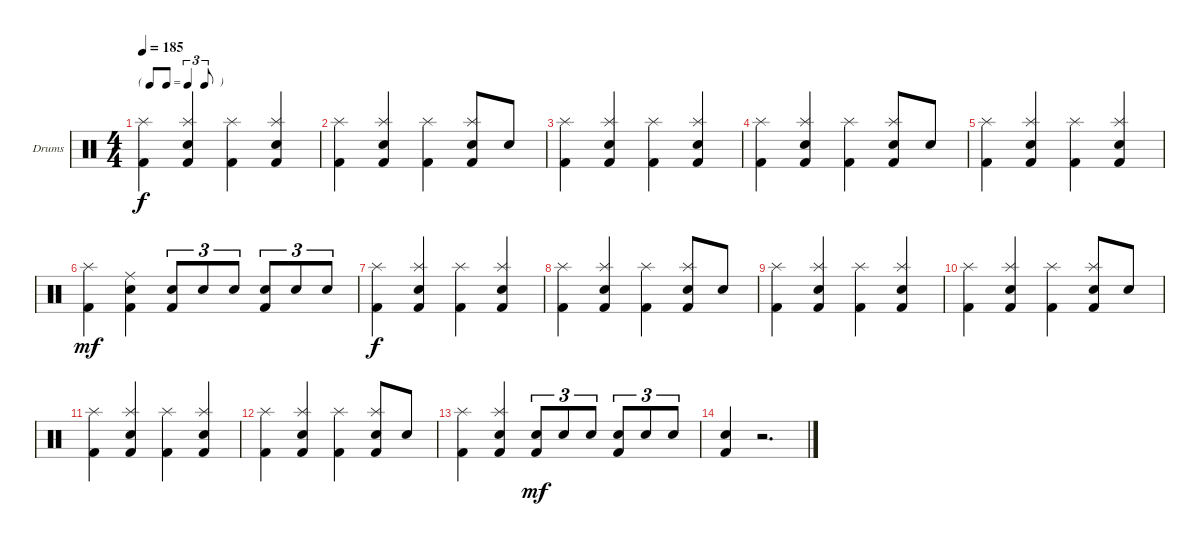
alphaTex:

\defaultSystemsLayout 4
\bracketExtendMode groupsimilarinstruments
\firstSystemTrackNameOrientation horizontal
\otherSystemsTrackNameOrientation horizontal
\track ("Batterie" "Drums") {instrument percussion}
\staff {score}
\articulation defaults
\ts (4 4)
\tf triplet8th
\tempo 185
\clef neutral
\ks c
("Kick (hit) 2" "Splash (hit)").4{dy f} ("Kick (hit) 2" "Snare (hit) 2" "Splash (hit)").4 ("Kick (hit) 2" "Splash (hit)").4 ("Kick (hit) 2" "Snare (hit) 2" "Splash (hit)").4 |
("Kick (hit) 2" "Splash (hit)").4 ("Kick (hit) 2" "Snare (hit) 2" "Splash (hit)").4 ("Kick (hit) 2" "Splash (hit)").4 ("Kick (hit) 2" "Snare (hit) 2" "Splash (hit)").8 "Snare (hit) 2".8 |
("Kick (hit) 2" "Splash (hit)").4 ("Kick (hit) 2" "Snare (hit) 2" "Splash (hit)").4 ("Kick (hit) 2" "Splash (hit)").4 ("Kick (hit) 2" "Snare (hit) 2" "Splash (hit)").4 |
("Kick (hit) 2" "Splash (hit)").4 ("Kick (hit) 2" "Snare (hit) 2" "Splash (hit)").4 ("Kick (hit) 2" "Splash (hit)").4 ("Kick (hit) 2" "Snare (hit) 2" "Splash (hit)").8 "Snare (hit) 2".8 |
("Kick (hit) 2" "Splash (hit)").4 ("Kick (hit) 2" "Snare (hit) 2" "Splash (hit)").4 ("Kick (hit) 2" "Splash (hit)").4 ("Kick (hit) 2" "Snare (hit) 2" "Splash (hit)").4 |
("Kick (hit) 2" "Splash (hit)").4{dy mf} ("Kick (hit) 2" "Snare (hit) 2" "Ride (middle)").4 ("Snare (hit) 2" "Kick (hit) 2").8{tu (3 2)} "Snare (hit) 2".8{tu (3 2)} "Snare (hit) 2".8{tu (3 2)} ("Snare (hit) 2" "Kick (hit) 2").8{tu (3 2)} "Snare (hit) 2".8{tu (3 2)} "Snare (hit) 2".8{tu (3 2)} |
("Kick (hit) 2" "Splash (hit)").4{dy f} ("Kick (hit) 2" "Snare (hit) 2" "Splash (hit)").4 ("Kick (hit) 2" "Splash (hit)").4 ("Kick (hit) 2" "Snare (hit) 2" "Splash (hit)").4 |
("Kick (hit) 2" "Splash (hit)").4 ("Kick (hit) 2" "Snare (hit) 2" "Splash (hit)").4 ("Kick (hit) 2" "Splash (hit)").4 ("Kick (hit) 2" "Snare (hit) 2" "Splash (hit)").8 "Snare (hit) 2".8 |
("Kick (hit) 2" "Splash (hit)").4 ("Kick (hit) 2" "Snare (hit) 2" "Splash (hit)").4 ("Kick (hit) 2" "Splash (hit)").4 ("Kick (hit) 2" "Snare (hit) 2" "Splash (hit)").4 |
("Kick (hit) 2" "Splash (hit)").4 ("Kick (hit) 2" "Snare (hit) 2" "Splash (hit)").4 ("Kick (hit) 2" "Splash (hit)").4 ("Kick (hit) 2" "Snare (hit) 2" "Splash (hit)").8 "Snare (hit) 2".8 |
("Kick (hit) 2" "Splash (hit)").4 ("Kick (hit) 2" "Snare (hit) 2" "Splash (hit)").4 ("Kick (hit) 2" "Splash (hit)").4 ("Kick (hit) 2" "Snare (hit) 2" "Splash (hit)").4 |
("Kick (hit) 2" "Splash (hit)").4 ("Kick (hit) 2" "Snare (hit) 2" "Splash (hit)").4 ("Kick (hit) 2" "Splash (hit)").4 ("Kick (hit) 2" "Snare (hit) 2" "Splash (hit)").8 "Snare (hit) 2".8 |
("Kick (hit) 2" "Splash (hit)").4 ("Kick (hit) 2" "Snare (hit) 2" "Splash (hit)").4 ("Snare (hit) 2" "Kick (hit) 2").8{tu (3 2) dy mf} "Snare (hit) 2".8{tu (3 2)} "Snare (hit) 2".8{tu (3 2)} ("Snare (hit) 2" "Kick (hit) 2").8{tu (3 2)} "Snare (hit) 2".8{tu (3 2)} "Snare (hit) 2".8{tu (3 2)} |
("Kick (hit) 2" "Snare (hit) 2").4 r.2{d}
